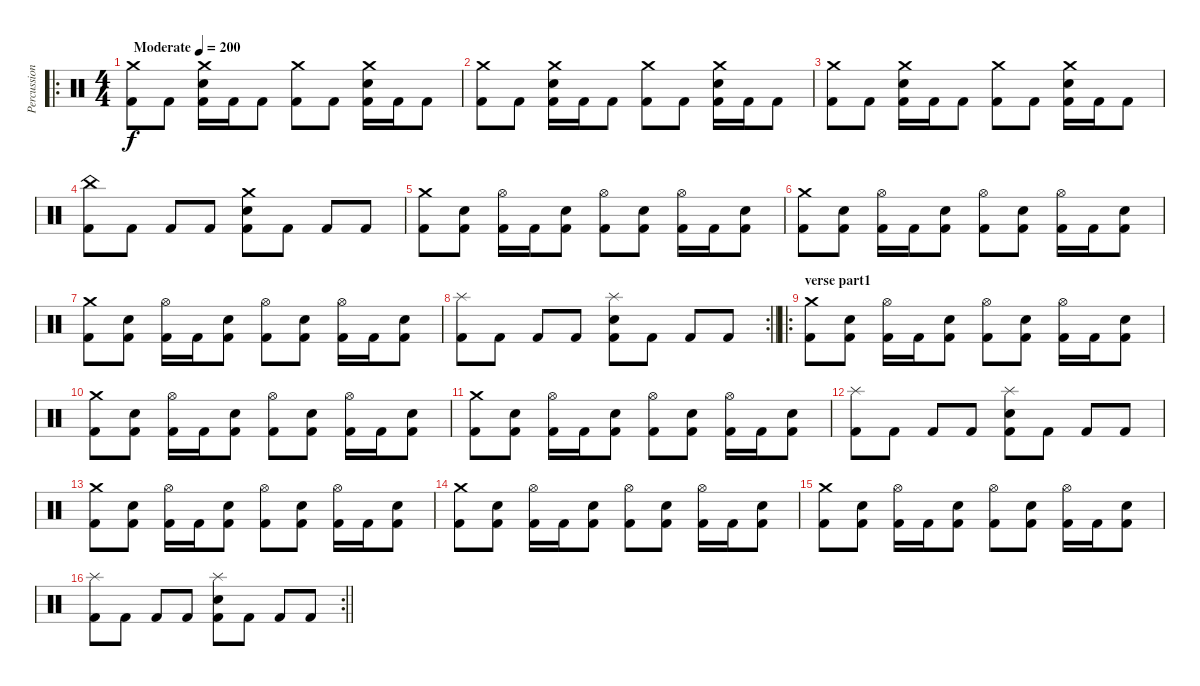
\track ("Percussion" "Percussion") {instrument percussion}
\staff {score}
\articulation defaults
\ro
\ts (4 4)
\tempo (200 "Moderate")
\clef neutral
\ks c
("Crash medium (hit)" "Kick (hit) 2").8{dy f} "Kick (hit) 2".8 ("Crash medium (hit)" "Electric Snare (hit)" "Kick (hit) 2").16 "Kick (hit) 2".16 "Kick (hit) 2".8 ("Crash medium (hit)" "Kick (hit) 2").8 "Kick (hit) 2".8 ("Crash medium (hit)" "Electric Snare (hit)" "Kick (hit) 2").16 "Kick (hit) 2".16 "Kick (hit) 2".8 |
("Crash medium (hit)" "Kick (hit) 2").8 "Kick (hit) 2".8 ("Crash medium (hit)" "Electric Snare (hit)" "Kick (hit) 2").16 "Kick (hit) 2".16 "Kick (hit) 2".8 ("Crash medium (hit)" "Kick (hit) 2").8 "Kick (hit) 2".8 ("Crash medium (hit)" "Electric Snare (hit)" "Kick (hit) 2").16 "Kick (hit) 2".16 "Kick (hit) 2".8 |
("Crash medium (hit)" "Kick (hit) 2").8 "Kick (hit) 2".8 ("Crash medium (hit)" "Electric Snare (hit)" "Kick (hit) 2").16 "Kick (hit) 2".16 "Kick (hit) 2".8 ("Crash medium (hit)" "Kick (hit) 2").8 "Kick (hit) 2".8 ("Crash medium (hit)" "Electric Snare (hit)" "Kick (hit) 2").16 "Kick (hit) 2".16 "Kick (hit) 2".8 |
("China (hit)" "Kick (hit) 2").8 "Kick (hit) 2".8 "Kick (hit) 2".8 "Kick (hit) 2".8 ("Crash medium (hit)" "Electric Snare (hit)" "Kick (hit) 2").8 "Kick (hit) 2".8 "Kick (hit) 2".8 "Kick (hit) 2".8 |
("Crash medium (hit)" "Kick (hit) 2").8 ("Electric Snare (hit)" "Kick (hit) 2").8 ("Hi-Hat (open)" "Kick (hit) 2").16 "Kick (hit) 2".16 ("Electric Snare (hit)" "Kick (hit) 2").8 ("Hi-Hat (open)" "Kick (hit) 2").8 ("Electric Snare (hit)" "Kick (hit) 2").8 ("Hi-Hat (open)" "Kick (hit) 2").16 "Kick (hit) 2".16 ("Electric Snare (hit)" "Kick (hit) 2").8 |
("Crash medium (hit)" "Kick (hit) 2").8 ("Electric Snare (hit)" "Kick (hit) 2").8 ("Hi-Hat (open)" "Kick (hit) 2").16 "Kick (hit) 2".16 ("Electric Snare (hit)" "Kick (hit) 2").8 ("Hi-Hat (open)" "Kick (hit) 2").8 ("Electric Snare (hit)" "Kick (hit) 2").8 ("Hi-Hat (open)" "Kick (hit) 2").16 "Kick (hit) 2".16 ("Electric Snare (hit)" "Kick (hit) 2").8 |
("Crash medium (hit)" "Kick (hit) 2").8 ("Electric Snare (hit)" "Kick (hit) 2").8 ("Hi-Hat (open)" "Kick (hit) 2").16 "Kick (hit) 2".16 ("Electric Snare (hit)" "Kick (hit) 2").8 ("Hi-Hat (open)" "Kick (hit) 2").8 ("Electric Snare (hit)" "Kick (hit) 2").8 ("Hi-Hat (open)" "Kick (hit) 2").16 "Kick (hit) 2".16 ("Electric Snare (hit)" "Kick (hit) 2").8 |
\rc 2
\barLineRight lightlight
("Splash (hit)" "Kick (hit) 2").8 "Kick (hit) 2".8 "Kick (hit) 2".8 "Kick (hit) 2".8 ("Splash (hit)" "Electric Snare (hit)" "Kick (hit) 2").8 "Kick (hit) 2".8 "Kick (hit) 2".8 "Kick (hit) 2".8 |
\ro
\section ("" "verse part1")
("Crash medium (hit)" "Kick (hit) 2").8 ("Electric Snare (hit)" "Kick (hit) 2").8 ("Hi-Hat (open)" "Kick (hit) 2").16 "Kick (hit) 2".16 ("Electric Snare (hit)" "Kick (hit) 2").8 ("Hi-Hat (open)" "Kick (hit) 2").8 ("Electric Snare (hit)" "Kick (hit) 2").8 ("Hi-Hat (open)" "Kick (hit) 2").16 "Kick (hit) 2".16 ("Electric Snare (hit)" "Kick (hit) 2").8 |
("Crash medium (hit)" "Kick (hit) 2").8 ("Electric Snare (hit)" "Kick (hit) 2").8 ("Hi-Hat (open)" "Kick (hit) 2").16 "Kick (hit) 2".16 ("Electric Snare (hit)" "Kick (hit) 2").8 ("Hi-Hat (open)" "Kick (hit) 2").8 ("Electric Snare (hit)" "Kick (hit) 2").8 ("Hi-Hat (open)" "Kick (hit) 2").16 "Kick (hit) 2".16 ("Electric Snare (hit)" "Kick (hit) 2").8 |
("Crash medium (hit)" "Kick (hit) 2").8 ("Electric Snare (hit)" "Kick (hit) 2").8 ("Hi-Hat (open)" "Kick (hit) 2").16 "Kick (hit) 2".16 ("Electric Snare (hit)" "Kick (hit) 2").8 ("Hi-Hat (open)" "Kick (hit) 2").8 ("Electric Snare (hit)" "Kick (hit) 2").8 ("Hi-Hat (open)" "Kick (hit) 2").16 "Kick (hit) 2".16 ("Electric Snare (hit)" "Kick (hit) 2").8 |
("Splash (hit)" "Kick (hit) 2").8 "Kick (hit) 2".8 "Kick (hit) 2".8 "Kick (hit) 2".8 ("Splash (hit)" "Electric Snare (hit)" "Kick (hit) 2").8 "Kick (hit) 2".8 "Kick (hit) 2".8 "Kick (hit) 2".8 |
("Crash medium (hit)" "Kick (hit) 2").8 ("Electric Snare (hit)" "Kick (hit) 2").8 ("Hi-Hat (open)" "Kick (hit) 2").16 "Kick (hit) 2".16 ("Electric Snare (hit)" "Kick (hit) 2").8 ("Hi-Hat (open)" "Kick (hit) 2").8 ("Electric Snare (hit)" "Kick (hit) 2").8 ("Hi-Hat (open)" "Kick (hit) 2").16 "Kick (hit) 2".16 ("Electric Snare (hit)" "Kick (hit) 2").8 |
("Crash medium (hit)" "Kick (hit) 2").8 ("Electric Snare (hit)" "Kick (hit) 2").8 ("Hi-Hat (open)" "Kick (hit) 2").16 "Kick (hit) 2".16 ("Electric Snare (hit)" "Kick (hit) 2").8 ("Hi-Hat (open)" "Kick (hit) 2").8 ("Electric Snare (hit)" "Kick (hit) 2").8 ("Hi-Hat (open)" "Kick (hit) 2").16 "Kick (hit) 2".16 ("Electric Snare (hit)" "Kick (hit) 2").8 |
("Crash medium (hit)" "Kick (hit) 2").8 ("Electric Snare (hit)" "Kick (hit) 2").8 ("Hi-Hat (open)" "Kick (hit) 2").16 "Kick (hit) 2".16 ("Electric Snare (hit)" "Kick (hit) 2").8 ("Hi-Hat (open)" "Kick (hit) 2").8 ("Electric Snare (hit)" "Kick (hit) 2").8 ("Hi-Hat (open)" "Kick (hit) 2").16 "Kick (hit) 2".16 ("Electric Snare (hit)" "Kick (hit) 2").8 |
\rc 2
\barLineRight lightlight
("Splash (hit)" "Kick (hit) 2").8 "Kick (hit) 2".8 "Kick (hit) 2".8 "Kick (hit) 2".8 ("Splash (hit)" "Electric Snare (hit)" "Kick (hit) 2").8 "Kick (hit) 2".8 "Kick (hit) 2".8 "Kick (hit) 2".8
